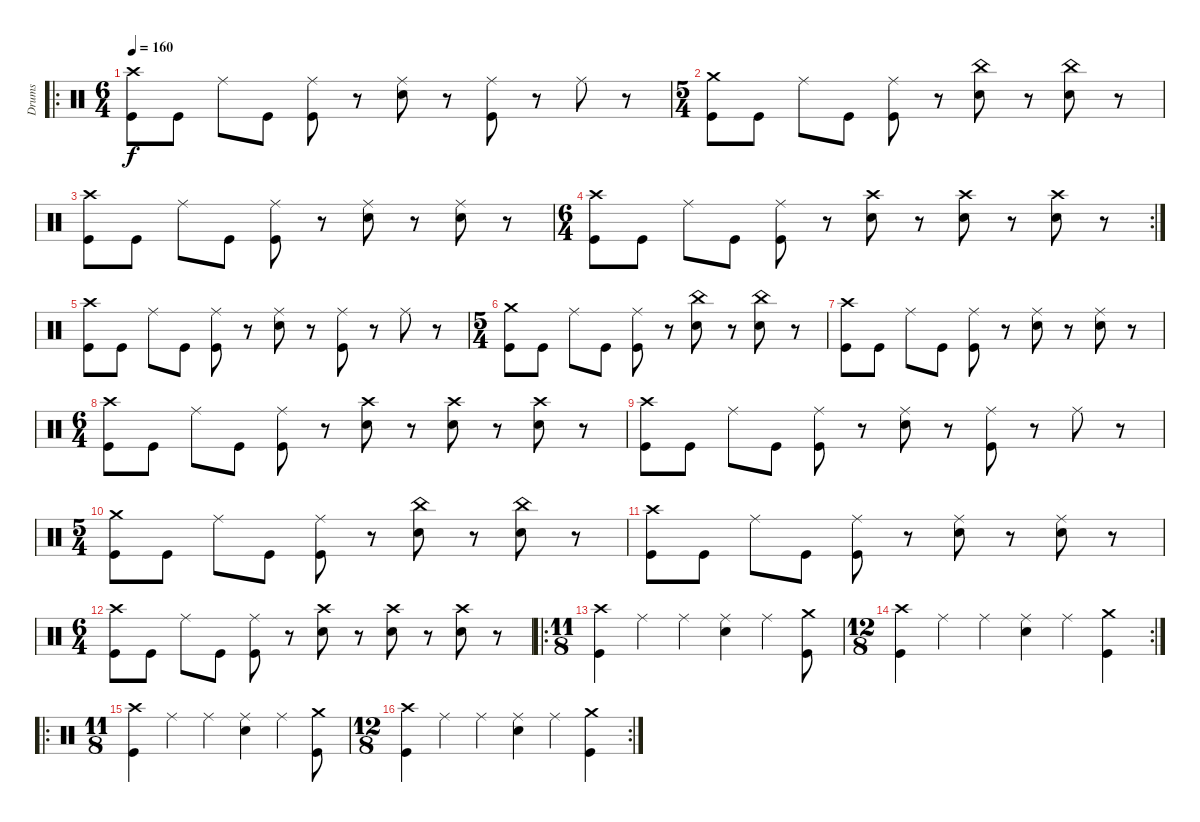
\track ("Drums" "Drums") {instrument percussion}
\staff {score}
\articulation defaults
\ro
\ts (6 4)
\tempo 160
\clef neutral
\ks c
("Crash high (hit)" "Kick (hit)").8{dy f} "Kick (hit)".8 "Ride (middle)".8 "Kick (hit)".8 ("Ride (middle)" "Kick (hit)").8 r.8 ("Ride (middle)" "Electric Snare (hit)").8 r.8 ("Ride (middle)" "Kick (hit)").8 r.8 "Ride (middle)".8 r.8 |
\ts (5 4)
("Crash medium (hit)" "Kick (hit)").8 "Kick (hit)".8 "Ride (middle)".8 "Kick (hit)".8 ("Ride (middle)" "Kick (hit)").8 r.8 ("China (hit)" "Electric Snare (hit)").8 r.8 ("China (hit)" "Electric Snare (hit)").8 r.8 |
("Crash high (hit)" "Kick (hit)").8 "Kick (hit)".8 "Ride (middle)".8 "Kick (hit)".8 ("Ride (middle)" "Kick (hit)").8 r.8 ("Ride (middle)" "Electric Snare (hit)").8 r.8 ("Ride (middle)" "Electric Snare (hit)").8 r.8 |
\rc 2
\ts (6 4)
("Crash high (hit)" "Kick (hit)").8 "Kick (hit)".8 "Ride (middle)".8 "Kick (hit)".8 ("Ride (middle)" "Kick (hit)").8 r.8 ("Crash high (hit)" "Electric Snare (hit)").8 r.8 ("Crash high (hit)" "Electric Snare (hit)").8 r.8 ("Crash high (hit)" "Electric Snare (hit)").8 r.8 |
("Crash high (hit)" "Kick (hit)").8 "Kick (hit)".8 "Ride (middle)".8 "Kick (hit)".8 ("Ride (middle)" "Kick (hit)").8 r.8 ("Ride (middle)" "Electric Snare (hit)").8 r.8 ("Ride (middle)" "Kick (hit)").8 r.8 "Ride (middle)".8 r.8 |
\ts (5 4)
("Crash medium (hit)" "Kick (hit)").8 "Kick (hit)".8 "Ride (middle)".8 "Kick (hit)".8 ("Ride (middle)" "Kick (hit)").8 r.8 ("China (hit)" "Electric Snare (hit)").8 r.8 ("China (hit)" "Electric Snare (hit)").8 r.8 |
("Crash high (hit)" "Kick (hit)").8 "Kick (hit)".8 "Ride (middle)".8 "Kick (hit)".8 ("Ride (middle)" "Kick (hit)").8 r.8 ("Ride (middle)" "Electric Snare (hit)").8 r.8 ("Ride (middle)" "Electric Snare (hit)").8 r.8 |
\ts (6 4)
("Crash high (hit)" "Kick (hit)").8 "Kick (hit)".8 "Ride (middle)".8 "Kick (hit)".8 ("Ride (middle)" "Kick (hit)").8 r.8 ("Crash high (hit)" "Electric Snare (hit)").8 r.8 ("Crash high (hit)" "Electric Snare (hit)").8 r.8 ("Crash high (hit)" "Electric Snare (hit)").8 r.8 |
("Crash high (hit)" "Kick (hit)").8 "Kick (hit)".8 "Ride (middle)".8 "Kick (hit)".8 ("Ride (middle)" "Kick (hit)").8 r.8 ("Ride (middle)" "Electric Snare (hit)").8 r.8 ("Ride (middle)" "Kick (hit)").8 r.8 "Ride (middle)".8 r.8 |
\ts (5 4)
("Crash medium (hit)" "Kick (hit)").8 "Kick (hit)".8 "Ride (middle)".8 "Kick (hit)".8 ("Ride (middle)" "Kick (hit)").8 r.8 ("China (hit)" "Electric Snare (hit)").8 r.8 ("China (hit)" "Electric Snare (hit)").8 r.8 |
("Crash high (hit)" "Kick (hit)").8 "Kick (hit)".8 "Ride (middle)".8 "Kick (hit)".8 ("Ride (middle)" "Kick (hit)").8 r.8 ("Ride (middle)" "Electric Snare (hit)").8 r.8 ("Ride (middle)" "Electric Snare (hit)").8 r.8 |
\ts (6 4)
("Crash high (hit)" "Kick (hit)").8 "Kick (hit)".8 "Ride (middle)".8 "Kick (hit)".8 ("Ride (middle)" "Kick (hit)").8 r.8 ("Crash high (hit)" "Electric Snare (hit)").8 r.8 ("Crash high (hit)" "Electric Snare (hit)").8 r.8 ("Crash high (hit)" "Electric Snare (hit)").8 r.8 |
\ro
\ts (11 8)
("Crash high (hit)" "Kick (hit)").4 "Ride (middle)".4 "Ride (middle)".4 ("Ride (middle)" "Electric Snare (hit)").4 "Ride (middle)".4 ("Crash medium (hit)" "Kick (hit)").8 |
\rc 2
\ts (12 8)
("Crash high (hit)" "Kick (hit)").4 "Ride (middle)".4 "Ride (middle)".4 ("Ride (middle)" "Electric Snare (hit)").4 "Ride (middle)".4 ("Crash medium (hit)" "Kick (hit)").4 |
\ro
\ts (11 8)
("Crash high (hit)" "Kick (hit)").4 "Ride (middle)".4 "Ride (middle)".4 ("Ride (middle)" "Electric Snare (hit)").4 "Ride (middle)".4 ("Crash medium (hit)" "Kick (hit)").8 |
\rc 2
\ts (12 8)
("Crash high (hit)" "Kick (hit)").4 "Ride (middle)".4 "Ride (middle)".4 ("Ride (middle)" "Electric Snare (hit)").4 "Ride (middle)".4 ("Crash medium (hit)" "Kick (hit)").4
